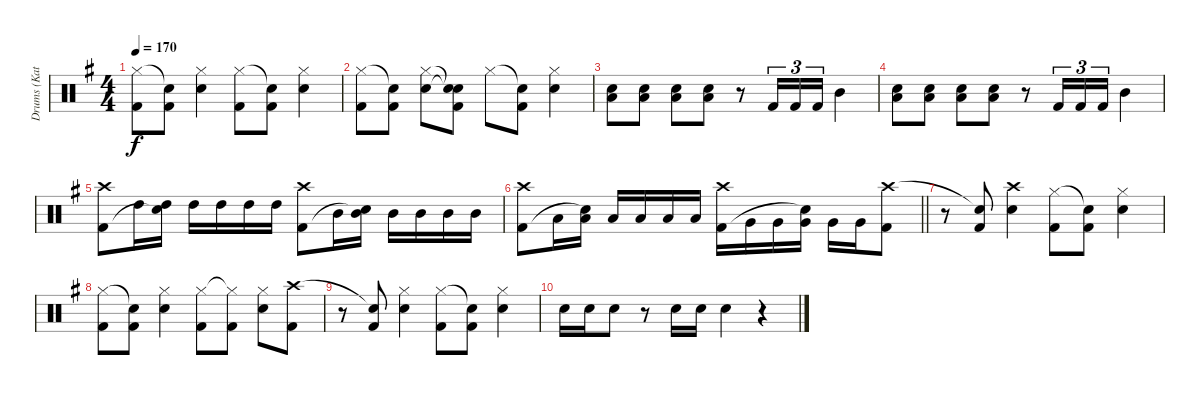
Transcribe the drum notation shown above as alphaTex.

\track ("Drums (Katsuji)" "Drums (Kat") {instrument percussion}
\staff {score}
\articulation defaults
\ts (4 4)
\tempo 170
\clef neutral
\ks g
("Hi-Hat (closed)" "Kick (hit) 2").8{dy f} ("Snare (hit)"{t} "Kick (hit) 2").8 ("Hi-Hat (closed)" "Snare (hit) 2").4 ("Hi-Hat (closed)" "Kick (hit) 2").8 ("Snare (hit)"{t} "Kick (hit) 2").8 ("Hi-Hat (closed)" "Snare (hit) 2").4 |
("Hi-Hat (closed)" "Kick (hit) 2").8 ("Snare (hit)"{t} "Kick (hit) 2").8 ("Hi-Hat (closed)" "Snare (hit) 2").8 ("Snare (hit)"{t} "Snare (hit)"{t} "Kick (hit) 2").8 "Hi-Hat (closed)".8 ("Snare (hit)"{t} "Kick (hit) 2").8 ("Hi-Hat (closed)" "Snare (hit) 2").4 |
("Snare (hit) 2" "Low Tom (hit)").8 ("Snare (hit) 2" "Low Tom (hit)").8 ("Snare (hit) 2" "Low Tom (hit)").8 ("Snare (hit) 2" "Low Tom (hit)").8 r.8 "Kick (hit) 2".16{tu (3 2)} "Kick (hit) 2".16{tu (3 2)} "Kick (hit) 2".16{tu (3 2)} "Mid Tom (hit)".4 |
("Snare (hit) 2" "Low Tom (hit)").8 ("Snare (hit) 2" "Low Tom (hit)").8 ("Snare (hit) 2" "Low Tom (hit)").8 ("Snare (hit) 2" "Low Tom (hit)").8 r.8 "Kick (hit) 2".16{tu (3 2)} "Kick (hit) 2".16{tu (3 2)} "Kick (hit) 2".16{tu (3 2)} "Mid Tom (hit)".4 |
("Crash high (hit)" "Kick (hit) 2").8 "High Tom (hit)".16 ("High Tom (hit)" "Snare (hit)"{t}).16 "High Tom (hit)".16 "High Tom (hit)".16 "High Tom (hit)".16 "High Tom (hit)".16 ("Crash high (hit)" "Kick (hit) 2").8 "Mid Tom (hit)".16 ("Mid Tom (hit)" "Snare (hit)"{t}).16 "Mid Tom (hit)".16 "Mid Tom (hit)".16 "Mid Tom (hit)".16 "Mid Tom (hit)".16 |
\barLineRight lightlight
("Crash high (hit)" "Kick (hit) 2").8 "Low Tom (hit)".16 ("Low Tom (hit)" "Snare (hit)"{t}).16 "Low Tom (hit)".16 "Low Tom (hit)".16 "Low Tom (hit)".16 "Low Tom (hit)".16 ("Crash high (hit)" "Kick (hit) 2").16 "Very Low Tom (hit)".16 "Very Low Tom (hit)".16 ("Very Low Tom (hit)" "Snare (hit)"{t}).16 "Very Low Tom (hit)".16 "Very Low Tom (hit)".16 ("Crash high (hit)" "Kick (hit) 2").8 |
r.8 ("Snare (hit)"{t} "Kick (hit) 2").8 ("Crash high (hit)" "Snare (hit) 2").4 ("Hi-Hat (closed)" "Kick (hit) 2").8 ("Snare (hit)"{t} "Kick (hit) 2").8 ("Hi-Hat (closed)" "Snare (hit) 2").4 |
("Hi-Hat (closed)" "Kick (hit) 2").8 ("Snare (hit)"{t} "Kick (hit) 2").8 ("Hi-Hat (closed)" "Snare (hit) 2").4 ("Hi-Hat (closed)" "Kick (hit) 2").8 ("Hi-Hat (closed)"{t} "Kick (hit) 2").8 ("Hi-Hat (closed)" "Snare (hit) 2").8 ("Crash high (hit)" "Kick (hit) 2").8 |
r.8 ("Snare (hit)"{t} "Kick (hit) 2").8 ("Hi-Hat (closed)" "Snare (hit) 2").4 ("Hi-Hat (closed)" "Kick (hit) 2").8 ("Snare (hit)"{t} "Kick (hit) 2").8 ("Hi-Hat (closed)" "Snare (hit) 2").4 |
"Snare (hit) 2".16 "Snare (hit) 2".16 "Snare (hit) 2".8 r.8 "Snare (hit) 2".16 "Snare (hit) 2".16 "Snare (hit) 2".4 r.4
